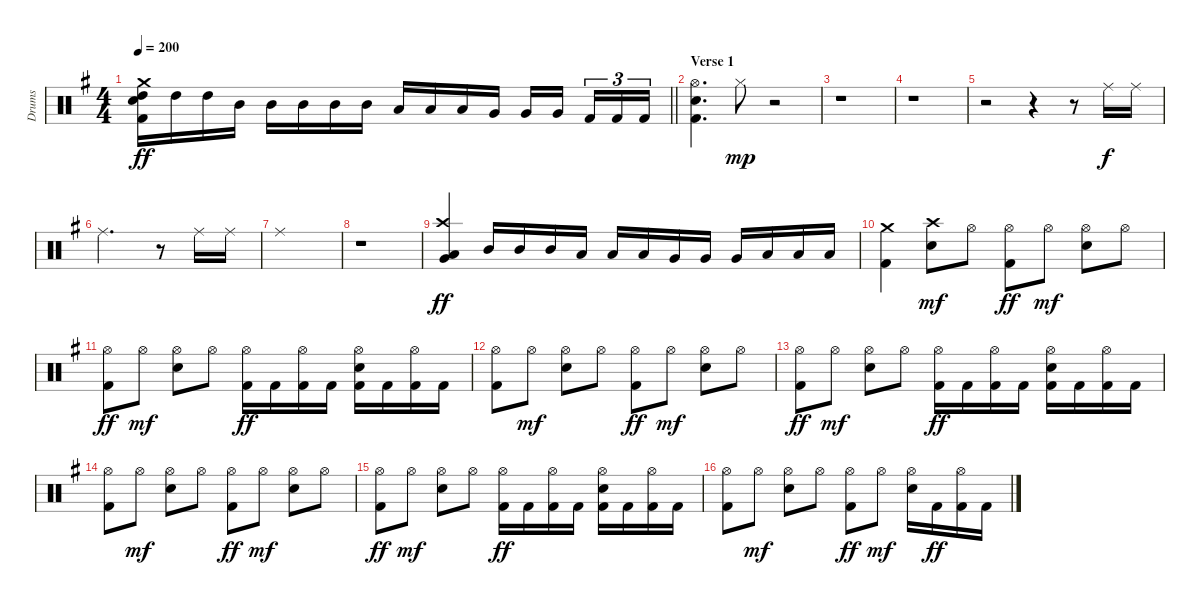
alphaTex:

\track ("Drums" "Drums") {instrument percussion}
\staff {score}
\articulation defaults
\ts (4 4)
\tempo 200
\clef neutral
\barLineRight lightlight
\ks g
("Crash medium (hit)" "High Tom (hit)" "Snare (hit) 2" "Kick (hit) 2").16{dy ff} "High Tom (hit)".16 "High Tom (hit)".16 "Mid Tom (hit)".16 "Mid Tom (hit)".16 "Mid Tom (hit)".16 "Mid Tom (hit)".16 "Mid Tom (hit)".16 "Low Tom (hit)".16 "Low Tom (hit)".16 "Low Tom (hit)".16 "Very Low Tom (hit)".16 "Very Low Tom (hit)".16 "Very Low Tom (hit)".16{beam splitsecondary} "Kick (hit) 2".16{tu (3 2)} "Kick (hit) 2".16{tu (3 2)} "Kick (hit) 2".16{tu (3 2)} |
\section ("" "Verse 1")
("Hi-Hat (open)" "Snare (hit) 2" "Kick (hit) 2").4{d} "Hi-Hat (closed)".8{dy mp} r.2 |
r.1 |
r.1 |
r.2 r.4 r.8 "Ride (middle)".16{dy f} "Ride (middle)".16 |
"Ride (middle)".2{d} r.8 "Ride (middle)".16 "Ride (middle)".16 |
"Ride (middle)".1 |
r.1 |
("Crash high (hit)" "Very Low Tom (hit)" "Low Floor Tom (hit)").4{dy ff} "Mid Tom (hit)".16 "Mid Tom (hit)".16 "Mid Tom (hit)".16 "Low Tom (hit)".16 "Low Tom (hit)".16 "Low Tom (hit)".16 "Very Low Tom (hit)".16 "Very Low Tom (hit)".16 "Very Low Tom (hit)".16 "Low Floor Tom (hit)".16 "Low Floor Tom (hit)".16 "Low Floor Tom (hit)".16 |
("Crash medium (hit)" "Kick (hit) 2").4 ("Crash high (hit)" "Snare (hit) 2").8{dy mf} "Hi-Hat (open)".8 ("Hi-Hat (open)" "Kick (hit) 2").8{dy ff} "Hi-Hat (open)".8{dy mf} ("Hi-Hat (open)" "Snare (hit) 2").8 "Hi-Hat (open)".8 |
("Hi-Hat (open)" "Kick (hit) 2").8{dy ff} "Hi-Hat (open)".8{dy mf} ("Hi-Hat (open)" "Snare (hit) 2").8 "Hi-Hat (open)".8 ("Hi-Hat (open)" "Kick (hit) 2").16{dy ff} "Kick (hit) 2".16 ("Hi-Hat (open)" "Kick (hit) 2").16 "Kick (hit) 2".16 ("Hi-Hat (open)" "Snare (hit) 2" "Kick (hit) 2").16 "Kick (hit) 2".16 ("Hi-Hat (open)" "Kick (hit) 2").16 "Kick (hit) 2".16 |
("Hi-Hat (open)" "Kick (hit) 2").8 "Hi-Hat (open)".8{dy mf} ("Hi-Hat (open)" "Snare (hit) 2").8 "Hi-Hat (open)".8 ("Hi-Hat (open)" "Kick (hit) 2").8{dy ff} "Hi-Hat (open)".8{dy mf} ("Hi-Hat (open)" "Snare (hit) 2").8 "Hi-Hat (open)".8 |
("Hi-Hat (open)" "Kick (hit) 2").8{dy ff} "Hi-Hat (open)".8{dy mf} ("Hi-Hat (open)" "Snare (hit) 2").8 "Hi-Hat (open)".8 ("Hi-Hat (open)" "Kick (hit) 2").16{dy ff} "Kick (hit) 2".16 ("Hi-Hat (open)" "Kick (hit) 2").16 "Kick (hit) 2".16 ("Hi-Hat (open)" "Snare (hit) 2" "Kick (hit) 2").16 "Kick (hit) 2".16 ("Hi-Hat (open)" "Kick (hit) 2").16 "Kick (hit) 2".16 |
("Hi-Hat (open)" "Kick (hit) 2").8 "Hi-Hat (open)".8{dy mf} ("Hi-Hat (open)" "Snare (hit) 2").8 "Hi-Hat (open)".8 ("Hi-Hat (open)" "Kick (hit) 2").8{dy ff} "Hi-Hat (open)".8{dy mf} ("Hi-Hat (open)" "Snare (hit) 2").8 "Hi-Hat (open)".8 |
("Hi-Hat (open)" "Kick (hit) 2").8{dy ff} "Hi-Hat (open)".8{dy mf} ("Hi-Hat (open)" "Snare (hit) 2").8 "Hi-Hat (open)".8 ("Hi-Hat (open)" "Kick (hit) 2").16{dy ff} "Kick (hit) 2".16 ("Hi-Hat (open)" "Kick (hit) 2").16 "Kick (hit) 2".16 ("Hi-Hat (open)" "Snare (hit) 2" "Kick (hit) 2").16 "Kick (hit) 2".16 ("Hi-Hat (open)" "Kick (hit) 2").16 "Kick (hit) 2".16 |
("Hi-Hat (open)" "Kick (hit) 2").8 "Hi-Hat (open)".8{dy mf} ("Hi-Hat (open)" "Snare (hit) 2").8 "Hi-Hat (open)".8 ("Hi-Hat (open)" "Kick (hit) 2").8{dy ff} "Hi-Hat (open)".8{dy mf} ("Hi-Hat (open)" "Snare (hit) 2").16 "Kick (hit) 2".16{dy ff} ("Hi-Hat (open)" "Kick (hit) 2").16 "Kick (hit) 2".16
